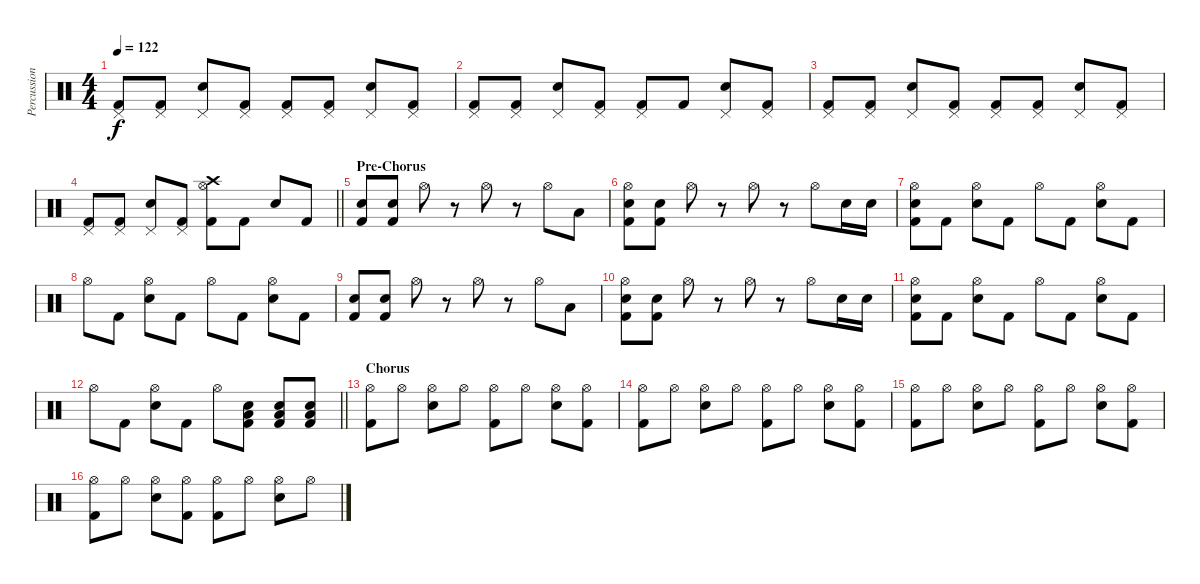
\track ("Percussion" "Percussion") {instrument percussion}
\staff {score}
\articulation defaults
\ts (4 4)
\tempo 122
\clef neutral
\ks c
("Pedal Hi-Hat (hit)" "Kick (hit) 2").8{dy f} ("Pedal Hi-Hat (hit)" "Kick (hit) 2").8 ("Pedal Hi-Hat (hit)" "Snare (hit) 2").8 ("Pedal Hi-Hat (hit)" "Kick (hit) 2").8 ("Pedal Hi-Hat (hit)" "Kick (hit) 2").8 ("Pedal Hi-Hat (hit)" "Kick (hit) 2").8 ("Pedal Hi-Hat (hit)" "Snare (hit) 2").8 ("Pedal Hi-Hat (hit)" "Kick (hit) 2").8 |
("Pedal Hi-Hat (hit)" "Kick (hit) 2").8 ("Pedal Hi-Hat (hit)" "Kick (hit) 2").8 ("Pedal Hi-Hat (hit)" "Snare (hit) 2").8 ("Pedal Hi-Hat (hit)" "Kick (hit) 2").8 ("Pedal Hi-Hat (hit)" "Kick (hit) 2").8 "Kick (hit) 2".8 ("Pedal Hi-Hat (hit)" "Snare (hit) 2").8 ("Pedal Hi-Hat (hit)" "Kick (hit) 2").8 |
("Pedal Hi-Hat (hit)" "Kick (hit) 2").8 ("Pedal Hi-Hat (hit)" "Kick (hit) 2").8 ("Pedal Hi-Hat (hit)" "Snare (hit) 2").8 ("Pedal Hi-Hat (hit)" "Kick (hit) 2").8 ("Pedal Hi-Hat (hit)" "Kick (hit) 2").8 ("Pedal Hi-Hat (hit)" "Kick (hit) 2").8 ("Pedal Hi-Hat (hit)" "Snare (hit) 2").8 ("Pedal Hi-Hat (hit)" "Kick (hit) 2").8 |
\barLineRight lightlight
("Pedal Hi-Hat (hit)" "Kick (hit) 2").8 ("Pedal Hi-Hat (hit)" "Kick (hit) 2").8 ("Pedal Hi-Hat (hit)" "Snare (hit) 2").8 ("Pedal Hi-Hat (hit)" "Kick (hit) 2").8 ("Crash high (hit)" "Hi-Hat (open)" "Kick (hit) 2").8 "Kick (hit) 2".8 "Snare (hit) 2".8 "Kick (hit) 2".8 |
\section ("" "Pre-Chorus")
("Snare (hit) 2" "Kick (hit) 2").8 ("Snare (hit) 2" "Kick (hit) 2").8 "Hi-Hat (open)".8 r.8 "Hi-Hat (open)".8 r.8 "Hi-Hat (open)".8 "Low Tom (hit)".8 |
("Hi-Hat (open)" "Snare (hit) 2" "Kick (hit) 2").8 ("Snare (hit) 2" "Kick (hit) 2").8 "Hi-Hat (open)".8 r.8 "Hi-Hat (open)".8 r.8 "Hi-Hat (open)".8 "Snare (hit) 2".16 "Snare (hit) 2".16 |
("Hi-Hat (open)" "Snare (hit) 2" "Kick (hit) 2").8 "Kick (hit) 2".8 ("Hi-Hat (open)" "Snare (hit) 2").8 "Kick (hit) 2".8 "Hi-Hat (open)".8 "Kick (hit) 2".8 ("Hi-Hat (open)" "Snare (hit) 2").8 "Kick (hit) 2".8 |
"Hi-Hat (open)".8 "Kick (hit) 2".8 ("Hi-Hat (open)" "Snare (hit) 2").8 "Kick (hit) 2".8 "Hi-Hat (open)".8 "Kick (hit) 2".8 ("Hi-Hat (open)" "Snare (hit) 2").8 "Kick (hit) 2".8 |
("Snare (hit) 2" "Kick (hit) 2").8 ("Snare (hit) 2" "Kick (hit) 2").8 "Hi-Hat (open)".8 r.8 "Hi-Hat (open)".8 r.8 "Hi-Hat (open)".8 "Low Tom (hit)".8 |
("Hi-Hat (open)" "Snare (hit) 2" "Kick (hit) 2").8 ("Snare (hit) 2" "Kick (hit) 2").8 "Hi-Hat (open)".8 r.8 "Hi-Hat (open)".8 r.8 "Hi-Hat (open)".8 "Snare (hit) 2".16 "Snare (hit) 2".16 |
("Hi-Hat (open)" "Snare (hit) 2" "Kick (hit) 2").8 "Kick (hit) 2".8 ("Hi-Hat (open)" "Snare (hit) 2").8 "Kick (hit) 2".8 "Hi-Hat (open)".8 "Kick (hit) 2".8 ("Hi-Hat (open)" "Snare (hit) 2").8 "Kick (hit) 2".8 |
\barLineRight lightlight "Hi-Hat (open)".8 "Kick (hit) 2".8
("Hi-Hat (open)" "Snare (hit) 2").8 "Kick (hit) 2".8 "Hi-Hat (open)".8 ("Snare (hit) 2" "Low Tom (hit)" "Kick (hit) 2").8 ("Snare (hit) 2" "Low Tom (hit)" "Kick (hit) 2").8 ("Snare (hit) 2" "Low Tom (hit)" "Kick (hit) 2").8 |
\section ("" "Chorus")
("Hi-Hat (open)" "Kick (hit) 2").8 "Hi-Hat (open)".8 ("Hi-Hat (open)" "Snare (hit) 2").8 "Hi-Hat (open)".8 ("Hi-Hat (open)" "Kick (hit) 2").8 "Hi-Hat (open)".8 ("Hi-Hat (open)" "Snare (hit) 2").8 ("Hi-Hat (open)" "Kick (hit) 2").8 |
("Hi-Hat (open)" "Kick (hit) 2").8 "Hi-Hat (open)".8 ("Hi-Hat (open)" "Snare (hit) 2").8 "Hi-Hat (open)".8 ("Hi-Hat (open)" "Kick (hit) 2").8 "Hi-Hat (open)".8 ("Hi-Hat (open)" "Snare (hit) 2").8 ("Hi-Hat (open)" "Kick (hit) 2").8 |
("Hi-Hat (open)" "Kick (hit) 2").8 "Hi-Hat (open)".8 ("Hi-Hat (open)" "Snare (hit) 2").8 "Hi-Hat (open)".8 ("Hi-Hat (open)" "Kick (hit) 2").8 "Hi-Hat (open)".8 ("Hi-Hat (open)" "Snare (hit) 2").8 ("Hi-Hat (open)" "Kick (hit) 2").8 |
("Hi-Hat (open)" "Kick (hit) 2").8 "Hi-Hat (open)".8 ("Hi-Hat (open)" "Snare (hit) 2").8 ("Hi-Hat (open)" "Kick (hit) 2").8 ("Hi-Hat (open)" "Kick (hit) 2").8 "Hi-Hat (open)".8 ("Hi-Hat (open)" "Snare (hit) 2").8 "Hi-Hat (open)".8
